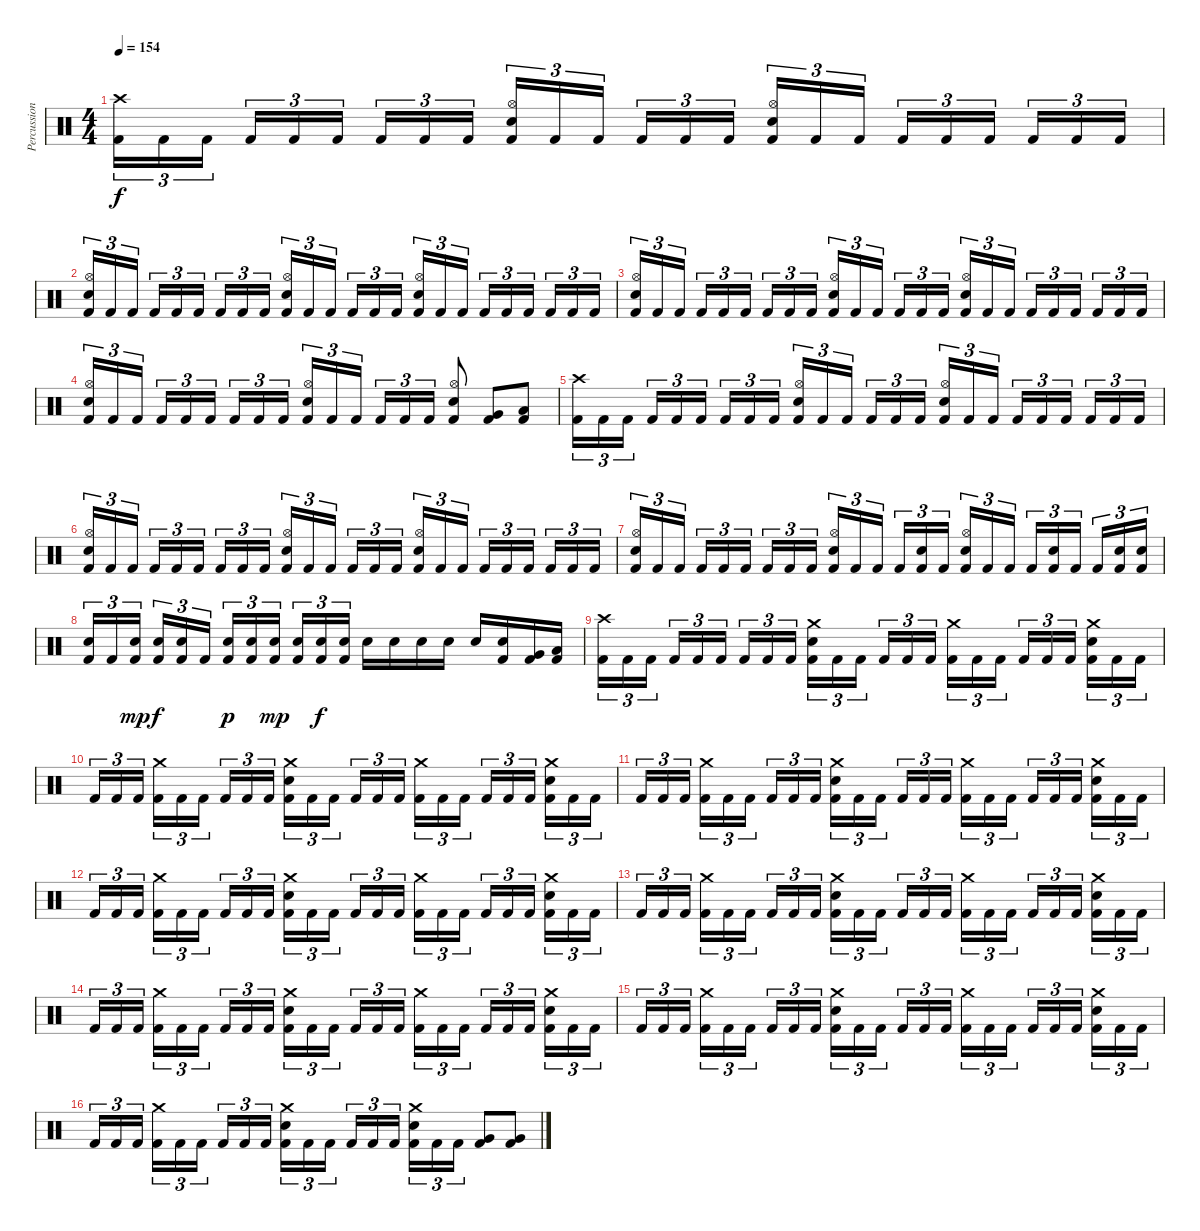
\track ("Percussion" "Percussion") {instrument percussion}
\staff {score}
\articulation defaults
\ts (4 4)
\tempo 154
\clef neutral
\ks c
("Crash high (hit)" "Kick (hit) 2").16{tu (3 2) dy f} "Kick (hit) 2".16{tu (3 2)} "Kick (hit) 2".16{tu (3 2) beam splitsecondary} "Kick (hit) 2".16{tu (3 2)} "Kick (hit) 2".16{tu (3 2)} "Kick (hit) 2".16{tu (3 2)} "Kick (hit) 2".16{tu (3 2)} "Kick (hit) 2".16{tu (3 2)} "Kick (hit) 2".16{tu (3 2) beam splitsecondary} ("Hi-Hat (open)" "Electric Snare (hit)" "Kick (hit) 2").16{tu (3 2)} "Kick (hit) 2".16{tu (3 2)} "Kick (hit) 2".16{tu (3 2)} "Kick (hit) 2".16{tu (3 2)} "Kick (hit) 2".16{tu (3 2)} "Kick (hit) 2".16{tu (3 2) beam splitsecondary} ("Hi-Hat (open)" "Electric Snare (hit)" "Kick (hit) 2").16{tu (3 2)} "Kick (hit) 2".16{tu (3 2)} "Kick (hit) 2".16{tu (3 2)} "Kick (hit) 2".16{tu (3 2)} "Kick (hit) 2".16{tu (3 2)} "Kick (hit) 2".16{tu (3 2) beam splitsecondary} "Kick (hit) 2".16{tu (3 2)} "Kick (hit) 2".16{tu (3 2)} "Kick (hit) 2".16{tu (3 2)} |
("Hi-Hat (open)" "Electric Snare (hit)" "Kick (hit) 2").16{tu (3 2)} "Kick (hit) 2".16{tu (3 2)} "Kick (hit) 2".16{tu (3 2) beam splitsecondary} "Kick (hit) 2".16{tu (3 2)} "Kick (hit) 2".16{tu (3 2)} "Kick (hit) 2".16{tu (3 2)} "Kick (hit) 2".16{tu (3 2)} "Kick (hit) 2".16{tu (3 2)} "Kick (hit) 2".16{tu (3 2) beam splitsecondary} ("Hi-Hat (open)" "Electric Snare (hit)" "Kick (hit) 2").16{tu (3 2)} "Kick (hit) 2".16{tu (3 2)} "Kick (hit) 2".16{tu (3 2)} "Kick (hit) 2".16{tu (3 2)} "Kick (hit) 2".16{tu (3 2)} "Kick (hit) 2".16{tu (3 2) beam splitsecondary} ("Hi-Hat (open)" "Electric Snare (hit)" "Kick (hit) 2").16{tu (3 2)} "Kick (hit) 2".16{tu (3 2)} "Kick (hit) 2".16{tu (3 2)} "Kick (hit) 2".16{tu (3 2)} "Kick (hit) 2".16{tu (3 2)} "Kick (hit) 2".16{tu (3 2) beam splitsecondary} "Kick (hit) 2".16{tu (3 2)} "Kick (hit) 2".16{tu (3 2)} "Kick (hit) 2".16{tu (3 2)} |
("Hi-Hat (open)" "Electric Snare (hit)" "Kick (hit) 2").16{tu (3 2)} "Kick (hit) 2".16{tu (3 2)} "Kick (hit) 2".16{tu (3 2) beam splitsecondary} "Kick (hit) 2".16{tu (3 2)} "Kick (hit) 2".16{tu (3 2)} "Kick (hit) 2".16{tu (3 2)} "Kick (hit) 2".16{tu (3 2)} "Kick (hit) 2".16{tu (3 2)} "Kick (hit) 2".16{tu (3 2) beam splitsecondary} ("Hi-Hat (open)" "Electric Snare (hit)" "Kick (hit) 2").16{tu (3 2)} "Kick (hit) 2".16{tu (3 2)} "Kick (hit) 2".16{tu (3 2)} "Kick (hit) 2".16{tu (3 2)} "Kick (hit) 2".16{tu (3 2)} "Kick (hit) 2".16{tu (3 2) beam splitsecondary} ("Hi-Hat (open)" "Electric Snare (hit)" "Kick (hit) 2").16{tu (3 2)} "Kick (hit) 2".16{tu (3 2)} "Kick (hit) 2".16{tu (3 2)} "Kick (hit) 2".16{tu (3 2)} "Kick (hit) 2".16{tu (3 2)} "Kick (hit) 2".16{tu (3 2) beam splitsecondary} "Kick (hit) 2".16{tu (3 2)} "Kick (hit) 2".16{tu (3 2)} "Kick (hit) 2".16{tu (3 2)} |
("Hi-Hat (open)" "Electric Snare (hit)" "Kick (hit) 2").16{tu (3 2)} "Kick (hit) 2".16{tu (3 2)} "Kick (hit) 2".16{tu (3 2) beam splitsecondary} "Kick (hit) 2".16{tu (3 2)} "Kick (hit) 2".16{tu (3 2)} "Kick (hit) 2".16{tu (3 2)} "Kick (hit) 2".16{tu (3 2)} "Kick (hit) 2".16{tu (3 2)} "Kick (hit) 2".16{tu (3 2) beam splitsecondary} ("Hi-Hat (open)" "Electric Snare (hit)" "Kick (hit) 2").16{tu (3 2)} "Kick (hit) 2".16{tu (3 2)} "Kick (hit) 2".16{tu (3 2)} "Kick (hit) 2".16{tu (3 2)} "Kick (hit) 2".16{tu (3 2)} "Kick (hit) 2".16{tu (3 2)} ("Hi-Hat (open)" "Electric Snare (hit)" "Kick (hit) 2").8 ("Very Low Tom (hit)" "Kick (hit) 2").8 ("Low Floor Tom (hit)" "Kick (hit) 2").8 |
("Crash high (hit)" "Kick (hit) 2").16{tu (3 2)} "Kick (hit) 2".16{tu (3 2)} "Kick (hit) 2".16{tu (3 2) beam splitsecondary} "Kick (hit) 2".16{tu (3 2)} "Kick (hit) 2".16{tu (3 2)} "Kick (hit) 2".16{tu (3 2)} "Kick (hit) 2".16{tu (3 2)} "Kick (hit) 2".16{tu (3 2)} "Kick (hit) 2".16{tu (3 2) beam splitsecondary} ("Hi-Hat (open)" "Electric Snare (hit)" "Kick (hit) 2").16{tu (3 2)} "Kick (hit) 2".16{tu (3 2)} "Kick (hit) 2".16{tu (3 2)} "Kick (hit) 2".16{tu (3 2)} "Kick (hit) 2".16{tu (3 2)} "Kick (hit) 2".16{tu (3 2) beam splitsecondary} ("Hi-Hat (open)" "Electric Snare (hit)" "Kick (hit) 2").16{tu (3 2)} "Kick (hit) 2".16{tu (3 2)} "Kick (hit) 2".16{tu (3 2)} "Kick (hit) 2".16{tu (3 2)} "Kick (hit) 2".16{tu (3 2)} "Kick (hit) 2".16{tu (3 2) beam splitsecondary} "Kick (hit) 2".16{tu (3 2)} "Kick (hit) 2".16{tu (3 2)} "Kick (hit) 2".16{tu (3 2)} |
("Hi-Hat (open)" "Electric Snare (hit)" "Kick (hit) 2").16{tu (3 2)} "Kick (hit) 2".16{tu (3 2)} "Kick (hit) 2".16{tu (3 2) beam splitsecondary} "Kick (hit) 2".16{tu (3 2)} "Kick (hit) 2".16{tu (3 2)} "Kick (hit) 2".16{tu (3 2)} "Kick (hit) 2".16{tu (3 2)} "Kick (hit) 2".16{tu (3 2)} "Kick (hit) 2".16{tu (3 2) beam splitsecondary} ("Hi-Hat (open)" "Electric Snare (hit)" "Kick (hit) 2").16{tu (3 2)} "Kick (hit) 2".16{tu (3 2)} "Kick (hit) 2".16{tu (3 2)} "Kick (hit) 2".16{tu (3 2)} "Kick (hit) 2".16{tu (3 2)} "Kick (hit) 2".16{tu (3 2) beam splitsecondary} ("Hi-Hat (open)" "Electric Snare (hit)" "Kick (hit) 2").16{tu (3 2)} "Kick (hit) 2".16{tu (3 2)} "Kick (hit) 2".16{tu (3 2)} "Kick (hit) 2".16{tu (3 2)} "Kick (hit) 2".16{tu (3 2)} "Kick (hit) 2".16{tu (3 2) beam splitsecondary} "Kick (hit) 2".16{tu (3 2)} "Kick (hit) 2".16{tu (3 2)} "Kick (hit) 2".16{tu (3 2)} |
("Hi-Hat (open)" "Electric Snare (hit)" "Kick (hit) 2").16{tu (3 2)} "Kick (hit) 2".16{tu (3 2)} "Kick (hit) 2".16{tu (3 2) beam splitsecondary} "Kick (hit) 2".16{tu (3 2)} "Kick (hit) 2".16{tu (3 2)} "Kick (hit) 2".16{tu (3 2)} "Kick (hit) 2".16{tu (3 2)} "Kick (hit) 2".16{tu (3 2)} "Kick (hit) 2".16{tu (3 2) beam splitsecondary} ("Hi-Hat (open)" "Electric Snare (hit)" "Kick (hit) 2").16{tu (3 2)} "Kick (hit) 2".16{tu (3 2)} "Kick (hit) 2".16{tu (3 2)} "Kick (hit) 2".16{tu (3 2)} ("Electric Snare (hit)" "Kick (hit) 2").16{tu (3 2)} "Kick (hit) 2".16{tu (3 2) beam splitsecondary} ("Hi-Hat (open)" "Electric Snare (hit)" "Kick (hit) 2").16{tu (3 2)} "Kick (hit) 2".16{tu (3 2)} "Kick (hit) 2".16{tu (3 2)} "Kick (hit) 2".16{tu (3 2)} ("Electric Snare (hit)" "Kick (hit) 2").16{tu (3 2)} "Kick (hit) 2".16{tu (3 2) beam splitsecondary} "Kick (hit) 2".16{tu (3 2)} ("Electric Snare (hit)" "Kick (hit) 2").16{tu (3 2)} ("Electric Snare (hit)" "Kick (hit) 2").16{tu (3 2)} |
("Electric Snare (hit)" "Kick (hit) 2").16{tu (3 2)} "Kick (hit) 2".16{tu (3 2)} ("Electric Snare (hit)" "Kick (hit) 2").16{tu (3 2) dy mp beam splitsecondary} ("Electric Snare (hit)" "Kick (hit) 2").16{tu (3 2) dy f} ("Electric Snare (hit)" "Kick (hit) 2").16{tu (3 2)} "Kick (hit) 2".16{tu (3 2)} ("Electric Snare (hit)" "Kick (hit) 2").16{tu (3 2) dy p} ("Electric Snare (hit)" "Kick (hit) 2").16{tu (3 2)} ("Electric Snare (hit)" "Kick (hit) 2").16{tu (3 2) dy mp beam splitsecondary} ("Electric Snare (hit)" "Kick (hit) 2").16{tu (3 2)} ("Electric Snare (hit)" "Kick (hit) 2").16{tu (3 2) dy f} ("Electric Snare (hit)" "Kick (hit) 2").16{tu (3 2)} "Electric Snare (hit)".16 "Electric Snare (hit)".16 "Electric Snare (hit)".16 "Electric Snare (hit)".16 "Electric Snare (hit)".16 ("Electric Snare (hit)" "Kick (hit) 2").16 ("Very Low Tom (hit)" "Kick (hit) 2").16 ("Low Floor Tom (hit)" "Kick (hit) 2").16 |
("Crash high (hit)" "Kick (hit) 2").16{tu (3 2)} "Kick (hit) 2".16{tu (3 2)} "Kick (hit) 2".16{tu (3 2) beam splitsecondary} "Kick (hit) 2".16{tu (3 2)} "Kick (hit) 2".16{tu (3 2)} "Kick (hit) 2".16{tu (3 2)} "Kick (hit) 2".16{tu (3 2)} "Kick (hit) 2".16{tu (3 2)} "Kick (hit) 2".16{tu (3 2) beam splitsecondary} ("Crash medium (hit)" "Electric Snare (hit)" "Kick (hit) 2").16{tu (3 2)} "Kick (hit) 2".16{tu (3 2)} "Kick (hit) 2".16{tu (3 2)} "Kick (hit) 2".16{tu (3 2)} "Kick (hit) 2".16{tu (3 2)} "Kick (hit) 2".16{tu (3 2) beam splitsecondary} ("Crash medium (hit)" "Kick (hit) 2").16{tu (3 2)} "Kick (hit) 2".16{tu (3 2)} "Kick (hit) 2".16{tu (3 2)} "Kick (hit) 2".16{tu (3 2)} "Kick (hit) 2".16{tu (3 2)} "Kick (hit) 2".16{tu (3 2) beam splitsecondary} ("Crash medium (hit)" "Electric Snare (hit)" "Kick (hit) 2").16{tu (3 2)} "Kick (hit) 2".16{tu (3 2)} "Kick (hit) 2".16{tu (3 2)} |
"Kick (hit) 2".16{tu (3 2)} "Kick (hit) 2".16{tu (3 2)} "Kick (hit) 2".16{tu (3 2) beam splitsecondary} ("Crash medium (hit)" "Kick (hit) 2").16{tu (3 2)} "Kick (hit) 2".16{tu (3 2)} "Kick (hit) 2".16{tu (3 2)} "Kick (hit) 2".16{tu (3 2)} "Kick (hit) 2".16{tu (3 2)} "Kick (hit) 2".16{tu (3 2) beam splitsecondary} ("Crash medium (hit)" "Electric Snare (hit)" "Kick (hit) 2").16{tu (3 2)} "Kick (hit) 2".16{tu (3 2)} "Kick (hit) 2".16{tu (3 2)} "Kick (hit) 2".16{tu (3 2)} "Kick (hit) 2".16{tu (3 2)} "Kick (hit) 2".16{tu (3 2) beam splitsecondary} ("Crash medium (hit)" "Kick (hit) 2").16{tu (3 2)} "Kick (hit) 2".16{tu (3 2)} "Kick (hit) 2".16{tu (3 2)} "Kick (hit) 2".16{tu (3 2)} "Kick (hit) 2".16{tu (3 2)} "Kick (hit) 2".16{tu (3 2) beam splitsecondary} ("Crash medium (hit)" "Electric Snare (hit)" "Kick (hit) 2").16{tu (3 2)} "Kick (hit) 2".16{tu (3 2)} "Kick (hit) 2".16{tu (3 2)} |
"Kick (hit) 2".16{tu (3 2)} "Kick (hit) 2".16{tu (3 2)} "Kick (hit) 2".16{tu (3 2) beam splitsecondary} ("Crash medium (hit)" "Kick (hit) 2").16{tu (3 2)} "Kick (hit) 2".16{tu (3 2)} "Kick (hit) 2".16{tu (3 2)} "Kick (hit) 2".16{tu (3 2)} "Kick (hit) 2".16{tu (3 2)} "Kick (hit) 2".16{tu (3 2) beam splitsecondary} ("Crash medium (hit)" "Electric Snare (hit)" "Kick (hit) 2").16{tu (3 2)} "Kick (hit) 2".16{tu (3 2)} "Kick (hit) 2".16{tu (3 2)} "Kick (hit) 2".16{tu (3 2)} "Kick (hit) 2".16{tu (3 2)} "Kick (hit) 2".16{tu (3 2) beam splitsecondary} ("Crash medium (hit)" "Kick (hit) 2").16{tu (3 2)} "Kick (hit) 2".16{tu (3 2)} "Kick (hit) 2".16{tu (3 2)} "Kick (hit) 2".16{tu (3 2)} "Kick (hit) 2".16{tu (3 2)} "Kick (hit) 2".16{tu (3 2) beam splitsecondary} ("Crash medium (hit)" "Electric Snare (hit)" "Kick (hit) 2").16{tu (3 2)} "Kick (hit) 2".16{tu (3 2)} "Kick (hit) 2".16{tu (3 2)} |
"Kick (hit) 2".16{tu (3 2)} "Kick (hit) 2".16{tu (3 2)} "Kick (hit) 2".16{tu (3 2) beam splitsecondary} ("Crash medium (hit)" "Kick (hit) 2").16{tu (3 2)} "Kick (hit) 2".16{tu (3 2)} "Kick (hit) 2".16{tu (3 2)} "Kick (hit) 2".16{tu (3 2)} "Kick (hit) 2".16{tu (3 2)} "Kick (hit) 2".16{tu (3 2) beam splitsecondary} ("Crash medium (hit)" "Electric Snare (hit)" "Kick (hit) 2").16{tu (3 2)} "Kick (hit) 2".16{tu (3 2)} "Kick (hit) 2".16{tu (3 2)} "Kick (hit) 2".16{tu (3 2)} "Kick (hit) 2".16{tu (3 2)} "Kick (hit) 2".16{tu (3 2) beam splitsecondary} ("Crash medium (hit)" "Kick (hit) 2").16{tu (3 2)} "Kick (hit) 2".16{tu (3 2)} "Kick (hit) 2".16{tu (3 2)} "Kick (hit) 2".16{tu (3 2)} "Kick (hit) 2".16{tu (3 2)} "Kick (hit) 2".16{tu (3 2) beam splitsecondary} ("Crash medium (hit)" "Electric Snare (hit)" "Kick (hit) 2").16{tu (3 2)} "Kick (hit) 2".16{tu (3 2)} "Kick (hit) 2".16{tu (3 2)} |
"Kick (hit) 2".16{tu (3 2)} "Kick (hit) 2".16{tu (3 2)} "Kick (hit) 2".16{tu (3 2) beam splitsecondary} ("Crash medium (hit)" "Kick (hit) 2").16{tu (3 2)} "Kick (hit) 2".16{tu (3 2)} "Kick (hit) 2".16{tu (3 2)} "Kick (hit) 2".16{tu (3 2)} "Kick (hit) 2".16{tu (3 2)} "Kick (hit) 2".16{tu (3 2) beam splitsecondary} ("Crash medium (hit)" "Electric Snare (hit)" "Kick (hit) 2").16{tu (3 2)} "Kick (hit) 2".16{tu (3 2)} "Kick (hit) 2".16{tu (3 2)} "Kick (hit) 2".16{tu (3 2)} "Kick (hit) 2".16{tu (3 2)} "Kick (hit) 2".16{tu (3 2) beam splitsecondary} ("Crash medium (hit)" "Kick (hit) 2").16{tu (3 2)} "Kick (hit) 2".16{tu (3 2)} "Kick (hit) 2".16{tu (3 2)} "Kick (hit) 2".16{tu (3 2)} "Kick (hit) 2".16{tu (3 2)} "Kick (hit) 2".16{tu (3 2) beam splitsecondary} ("Crash medium (hit)" "Electric Snare (hit)" "Kick (hit) 2").16{tu (3 2)} "Kick (hit) 2".16{tu (3 2)} "Kick (hit) 2".16{tu (3 2)} |
"Kick (hit) 2".16{tu (3 2)} "Kick (hit) 2".16{tu (3 2)} "Kick (hit) 2".16{tu (3 2) beam splitsecondary} ("Crash medium (hit)" "Kick (hit) 2").16{tu (3 2)} "Kick (hit) 2".16{tu (3 2)} "Kick (hit) 2".16{tu (3 2)} "Kick (hit) 2".16{tu (3 2)} "Kick (hit) 2".16{tu (3 2)} "Kick (hit) 2".16{tu (3 2) beam splitsecondary} ("Crash medium (hit)" "Electric Snare (hit)" "Kick (hit) 2").16{tu (3 2)} "Kick (hit) 2".16{tu (3 2)} "Kick (hit) 2".16{tu (3 2)} "Kick (hit) 2".16{tu (3 2)} "Kick (hit) 2".16{tu (3 2)} "Kick (hit) 2".16{tu (3 2) beam splitsecondary} ("Crash medium (hit)" "Kick (hit) 2").16{tu (3 2)} "Kick (hit) 2".16{tu (3 2)} "Kick (hit) 2".16{tu (3 2)} "Kick (hit) 2".16{tu (3 2)} "Kick (hit) 2".16{tu (3 2)} "Kick (hit) 2".16{tu (3 2) beam splitsecondary} ("Crash medium (hit)" "Electric Snare (hit)" "Kick (hit) 2").16{tu (3 2)} "Kick (hit) 2".16{tu (3 2)} "Kick (hit) 2".16{tu (3 2)} |
"Kick (hit) 2".16{tu (3 2)} "Kick (hit) 2".16{tu (3 2)} "Kick (hit) 2".16{tu (3 2) beam splitsecondary} ("Crash medium (hit)" "Kick (hit) 2").16{tu (3 2)} "Kick (hit) 2".16{tu (3 2)} "Kick (hit) 2".16{tu (3 2)} "Kick (hit) 2".16{tu (3 2)} "Kick (hit) 2".16{tu (3 2)} "Kick (hit) 2".16{tu (3 2) beam splitsecondary} ("Crash medium (hit)" "Electric Snare (hit)" "Kick (hit) 2").16{tu (3 2)} "Kick (hit) 2".16{tu (3 2)} "Kick (hit) 2".16{tu (3 2)} "Kick (hit) 2".16{tu (3 2)} "Kick (hit) 2".16{tu (3 2)} "Kick (hit) 2".16{tu (3 2) beam splitsecondary} ("Crash medium (hit)" "Kick (hit) 2").16{tu (3 2)} "Kick (hit) 2".16{tu (3 2)} "Kick (hit) 2".16{tu (3 2)} "Kick (hit) 2".16{tu (3 2)} "Kick (hit) 2".16{tu (3 2)} "Kick (hit) 2".16{tu (3 2) beam splitsecondary} ("Crash medium (hit)" "Electric Snare (hit)" "Kick (hit) 2").16{tu (3 2)} "Kick (hit) 2".16{tu (3 2)} "Kick (hit) 2".16{tu (3 2)} |
"Kick (hit) 2".16{tu (3 2)} "Kick (hit) 2".16{tu (3 2)} "Kick (hit) 2".16{tu (3 2) beam splitsecondary} ("Crash medium (hit)" "Kick (hit) 2").16{tu (3 2)} "Kick (hit) 2".16{tu (3 2)} "Kick (hit) 2".16{tu (3 2)} "Kick (hit) 2".16{tu (3 2)} "Kick (hit) 2".16{tu (3 2)} "Kick (hit) 2".16{tu (3 2) beam splitsecondary} ("Crash medium (hit)" "Electric Snare (hit)" "Kick (hit) 2").16{tu (3 2)} "Kick (hit) 2".16{tu (3 2)} "Kick (hit) 2".16{tu (3 2)} "Kick (hit) 2".16{tu (3 2)} "Kick (hit) 2".16{tu (3 2)} "Kick (hit) 2".16{tu (3 2) beam splitsecondary} ("Crash medium (hit)" "Electric Snare (hit)" "Kick (hit) 2").16{tu (3 2)} "Kick (hit) 2".16{tu (3 2)} "Kick (hit) 2".16{tu (3 2)} ("Very Low Tom (hit)" "Kick (hit) 2").8 ("Very Low Tom (hit)" "Kick (hit) 2").8
